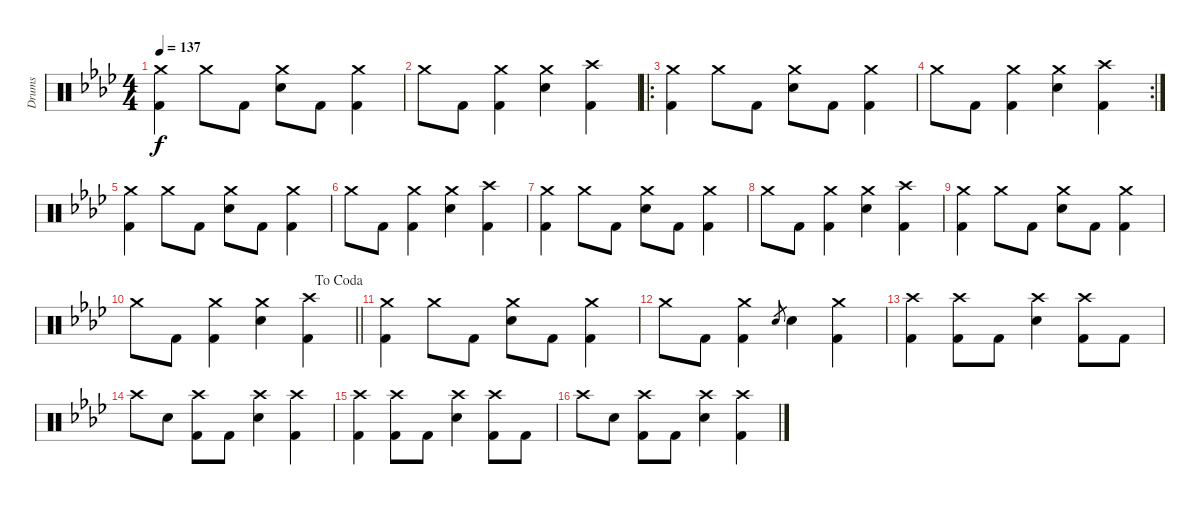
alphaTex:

\track ("Drums" "Drums") {instrument percussion}
\staff {score}
\articulation defaults
\ts (4 4)
\tempo 137
\clef neutral
\ks ab
("Crash medium (hit)" "Kick (hit) 2").4{dy f} "Crash medium (hit)".8 "Kick (hit) 2".8 ("Crash medium (hit)" "Electric Snare (hit)").8 "Kick (hit) 2".8 ("Crash medium (hit)" "Kick (hit) 2").4 |
"Crash medium (hit)".8 "Kick (hit) 2".8 ("Crash medium (hit)" "Kick (hit) 2").4 ("Crash medium (hit)" "Electric Snare (hit)").4 ("Crash high (hit)" "Kick (hit) 2").4 |
\ro
("Crash medium (hit)" "Kick (hit) 2").4 "Crash medium (hit)".8 "Kick (hit) 2".8 ("Crash medium (hit)" "Electric Snare (hit)").8 "Kick (hit) 2".8 ("Crash medium (hit)" "Kick (hit) 2").4 |
\rc 2 "Crash medium (hit)".8 "Kick (hit) 2".8
("Crash medium (hit)" "Kick (hit) 2").4 ("Crash medium (hit)" "Electric Snare (hit)").4 ("Crash high (hit)" "Kick (hit) 2").4 |
("Crash medium (hit)" "Kick (hit) 2").4 "Crash medium (hit)".8 "Kick (hit) 2".8 ("Crash medium (hit)" "Electric Snare (hit)").8 "Kick (hit) 2".8 ("Crash medium (hit)" "Kick (hit) 2").4 |
"Crash medium (hit)".8 "Kick (hit) 2".8 ("Crash medium (hit)" "Kick (hit) 2").4 ("Crash medium (hit)" "Electric Snare (hit)").4 ("Crash high (hit)" "Kick (hit) 2").4 |
("Crash medium (hit)" "Kick (hit) 2").4 "Crash medium (hit)".8 "Kick (hit) 2".8 ("Crash medium (hit)" "Electric Snare (hit)").8 "Kick (hit) 2".8 ("Crash medium (hit)" "Kick (hit) 2").4 |
"Crash medium (hit)".8 "Kick (hit) 2".8 ("Crash medium (hit)" "Kick (hit) 2").4 ("Crash medium (hit)" "Electric Snare (hit)").4 ("Crash high (hit)" "Kick (hit) 2").4 |
("Crash medium (hit)" "Kick (hit) 2").4 "Crash medium (hit)".8 "Kick (hit) 2".8 ("Crash medium (hit)" "Electric Snare (hit)").8 "Kick (hit) 2".8 ("Crash medium (hit)" "Kick (hit) 2").4 |
\jump dacoda
\barLineRight lightlight "Crash medium (hit)".8 "Kick (hit) 2".8
("Crash medium (hit)" "Kick (hit) 2").4 ("Crash medium (hit)" "Electric Snare (hit)").4 ("Crash high (hit)" "Kick (hit) 2").4 |
("Crash medium (hit)" "Kick (hit) 2").4 "Crash medium (hit)".8 "Kick (hit) 2".8 ("Crash medium (hit)" "Electric Snare (hit)").8 "Kick (hit) 2".8 ("Crash medium (hit)" "Kick (hit) 2").4 |
"Crash medium (hit)".8 "Kick (hit) 2".8 ("Crash medium (hit)" "Kick (hit) 2").4 "Electric Snare (hit)".8{gr} "Electric Snare (hit)".4 ("Crash medium (hit)" "Kick (hit) 2").4 |
("Crash high (hit)" "Kick (hit) 2").4 ("Crash high (hit)" "Kick (hit) 2").8 "Kick (hit) 2".8 ("Crash high (hit)" "Electric Snare (hit)").4 ("Crash high (hit)" "Kick (hit) 2").8 "Kick (hit) 2".8 |
"Crash high (hit)".8 "Electric Snare (hit)".8 ("Crash high (hit)" "Kick (hit) 2").8 "Kick (hit) 2".8 ("Crash high (hit)" "Electric Snare (hit)").4 ("Crash high (hit)" "Kick (hit) 2").4 |
("Crash high (hit)" "Kick (hit) 2").4 ("Crash high (hit)" "Kick (hit) 2").8 "Kick (hit) 2".8 ("Crash high (hit)" "Electric Snare (hit)").4 ("Crash high (hit)" "Kick (hit) 2").8 "Kick (hit) 2".8 |
"Crash high (hit)".8 "Electric Snare (hit)".8 ("Crash high (hit)" "Kick (hit) 2").8 "Kick (hit) 2".8 ("Crash high (hit)" "Electric Snare (hit)").4 ("Crash high (hit)" "Kick (hit) 2").4
